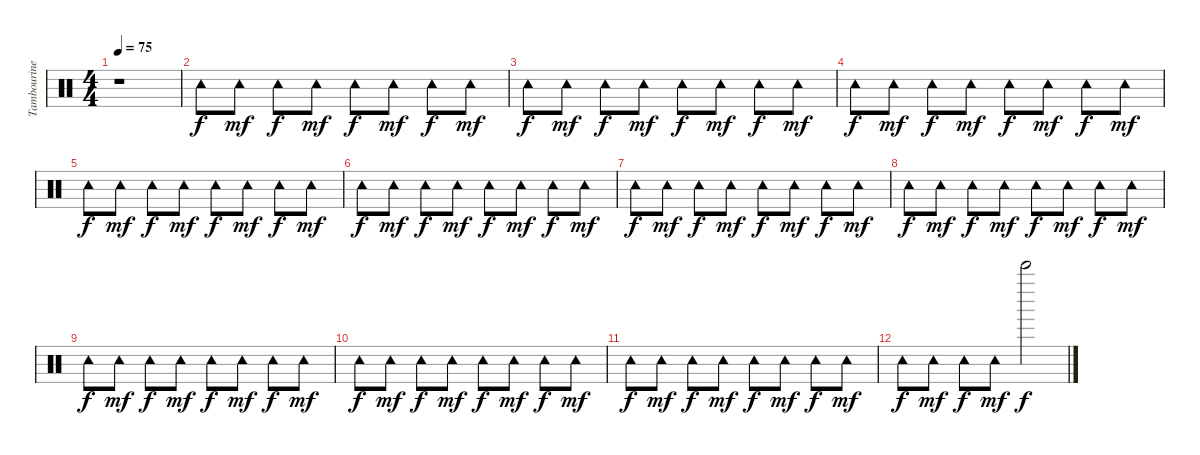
\track ("Tambourine" "Tambourine") {instrument percussion}
\staff {score}
\articulation defaults
\ts (4 4)
\tempo 75
\clef neutral
\ks c
r.1{dy f} |
"Tambourine (hit)".8 "Tambourine (hit)".8{dy mf} "Tambourine (hit)".8{dy f} "Tambourine (hit)".8{dy mf} "Tambourine (hit)".8{dy f} "Tambourine (hit)".8{dy mf} "Tambourine (hit)".8{dy f} "Tambourine (hit)".8{dy mf} |
"Tambourine (hit)".8{dy f} "Tambourine (hit)".8{dy mf} "Tambourine (hit)".8{dy f} "Tambourine (hit)".8{dy mf} "Tambourine (hit)".8{dy f} "Tambourine (hit)".8{dy mf} "Tambourine (hit)".8{dy f} "Tambourine (hit)".8{dy mf} |
"Tambourine (hit)".8{dy f} "Tambourine (hit)".8{dy mf} "Tambourine (hit)".8{dy f} "Tambourine (hit)".8{dy mf} "Tambourine (hit)".8{dy f} "Tambourine (hit)".8{dy mf} "Tambourine (hit)".8{dy f} "Tambourine (hit)".8{dy mf} |
"Tambourine (hit)".8{dy f} "Tambourine (hit)".8{dy mf} "Tambourine (hit)".8{dy f} "Tambourine (hit)".8{dy mf} "Tambourine (hit)".8{dy f} "Tambourine (hit)".8{dy mf} "Tambourine (hit)".8{dy f} "Tambourine (hit)".8{dy mf} |
"Tambourine (hit)".8{dy f} "Tambourine (hit)".8{dy mf} "Tambourine (hit)".8{dy f} "Tambourine (hit)".8{dy mf} "Tambourine (hit)".8{dy f} "Tambourine (hit)".8{dy mf} "Tambourine (hit)".8{dy f} "Tambourine (hit)".8{dy mf} |
"Tambourine (hit)".8{dy f} "Tambourine (hit)".8{dy mf} "Tambourine (hit)".8{dy f} "Tambourine (hit)".8{dy mf} "Tambourine (hit)".8{dy f} "Tambourine (hit)".8{dy mf} "Tambourine (hit)".8{dy f} "Tambourine (hit)".8{dy mf} |
"Tambourine (hit)".8{dy f} "Tambourine (hit)".8{dy mf} "Tambourine (hit)".8{dy f} "Tambourine (hit)".8{dy mf} "Tambourine (hit)".8{dy f} "Tambourine (hit)".8{dy mf} "Tambourine (hit)".8{dy f} "Tambourine (hit)".8{dy mf} |
"Tambourine (hit)".8{dy f} "Tambourine (hit)".8{dy mf} "Tambourine (hit)".8{dy f} "Tambourine (hit)".8{dy mf} "Tambourine (hit)".8{dy f} "Tambourine (hit)".8{dy mf} "Tambourine (hit)".8{dy f} "Tambourine (hit)".8{dy mf} |
"Tambourine (hit)".8{dy f} "Tambourine (hit)".8{dy mf} "Tambourine (hit)".8{dy f} "Tambourine (hit)".8{dy mf} "Tambourine (hit)".8{dy f} "Tambourine (hit)".8{dy mf} "Tambourine (hit)".8{dy f} "Tambourine (hit)".8{dy mf} |
"Tambourine (hit)".8{dy f} "Tambourine (hit)".8{dy mf} "Tambourine (hit)".8{dy f} "Tambourine (hit)".8{dy mf} "Tambourine (hit)".8{dy f} "Tambourine (hit)".8{dy mf} "Tambourine (hit)".8{dy f} "Tambourine (hit)".8{dy mf} |
"Tambourine (hit)".8{dy f} "Tambourine (hit)".8{dy mf} "Tambourine (hit)".8{dy f} "Tambourine (hit)".8{dy mf} "Bell Tree (hit)".2{dy f}
